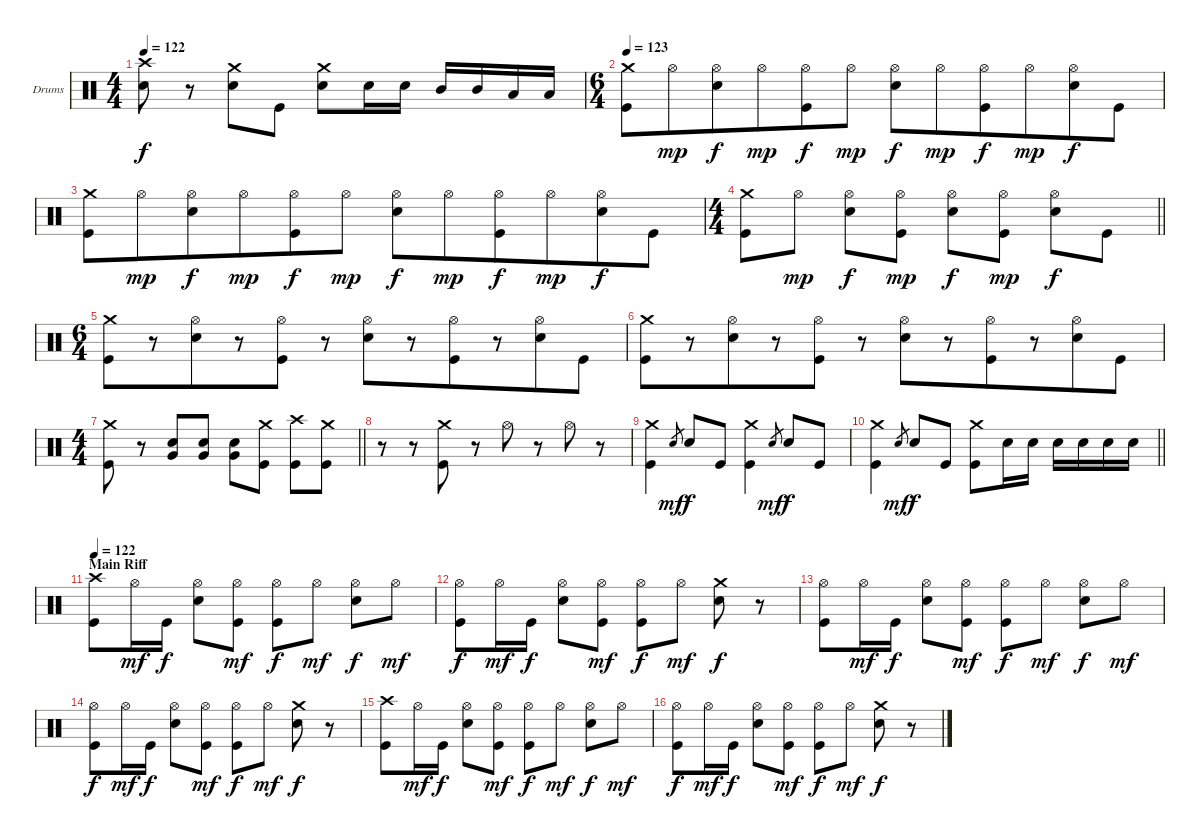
\bracketExtendMode groupsimilarinstruments
\firstSystemTrackNameOrientation horizontal
\otherSystemsTrackNameOrientation horizontal
\track ("Drumkit" "Drums") {instrument percussion}
\staff {score}
\articulation defaults
\ts (4 4)
\beaming (8 2 2 2 2)
\tempo 122
\clef neutral
\ks c
("Crash high (hit)" "Snare (hit) 2").8{dy f} r.8 ("Crash medium (hit)" "Snare (hit) 2").8 "Kick (hit)".8 ("Crash medium (hit)" "Snare (hit) 2").8 "Snare (hit) 2".16 "Snare (hit) 2".16 "Mid Tom (hit)".16 "Mid Tom (hit)".16 "Low Tom (hit)".16 "Low Tom (hit)".16 |
\ts (6 4)
\beaming (8 6 6)
\tempo 123
("Crash medium (hit)" "Kick (hit)").8 "Hi-Hat (open)".8{dy mp} ("Hi-Hat (open)" "Snare (hit) 2").8{dy f} "Hi-Hat (open)".8{dy mp} ("Hi-Hat (open)" "Kick (hit)").8{dy f} "Hi-Hat (open)".8{dy mp} ("Hi-Hat (open)" "Snare (hit) 2").8{dy f} "Hi-Hat (open)".8{dy mp} ("Hi-Hat (open)" "Kick (hit)").8{dy f} "Hi-Hat (open)".8{dy mp} ("Hi-Hat (open)" "Snare (hit) 2").8{dy f} "Kick (hit)".8 |
("Crash medium (hit)" "Kick (hit)").8 "Hi-Hat (open)".8{dy mp} ("Hi-Hat (open)" "Snare (hit) 2").8{dy f} "Hi-Hat (open)".8{dy mp} ("Hi-Hat (open)" "Kick (hit)").8{dy f} "Hi-Hat (open)".8{dy mp} ("Hi-Hat (open)" "Snare (hit) 2").8{dy f} "Hi-Hat (open)".8{dy mp} ("Hi-Hat (open)" "Kick (hit)").8{dy f} "Hi-Hat (open)".8{dy mp} ("Hi-Hat (open)" "Snare (hit) 2").8{dy f} "Kick (hit)".8 |
\ts (4 4)
\beaming (8 2 2 2 2)
\barLineRight lightlight
("Crash medium (hit)" "Kick (hit)").8 "Hi-Hat (open)".8{dy mp} ("Hi-Hat (open)" "Snare (hit) 2").8{dy f} ("Hi-Hat (open)" "Kick (hit)").8{dy mp} ("Hi-Hat (open)" "Snare (hit) 2").8{dy f} ("Hi-Hat (open)" "Kick (hit)").8{dy mp} ("Hi-Hat (open)" "Snare (hit) 2").8{dy f} "Kick (hit)".8 |
\ts (6 4)
\beaming (8 6 6)
("Crash medium (hit)" "Kick (hit)").8 r.8 ("Hi-Hat (open)" "Snare (hit) 2").8 r.8 ("Hi-Hat (open)" "Kick (hit)").8 r.8 ("Hi-Hat (open)" "Snare (hit) 2").8 r.8 ("Hi-Hat (open)" "Kick (hit)").8 r.8 ("Hi-Hat (open)" "Snare (hit) 2").8 "Kick (hit)".8 |
("Crash medium (hit)" "Kick (hit)").8 r.8 ("Hi-Hat (open)" "Snare (hit) 2").8 r.8 ("Hi-Hat (open)" "Kick (hit)").8 r.8 ("Hi-Hat (open)" "Snare (hit) 2").8 r.8 ("Hi-Hat (open)" "Kick (hit)").8 r.8 ("Hi-Hat (open)" "Snare (hit) 2").8 "Kick (hit)".8 |
\ts (4 4)
\beaming (8 2 2 2 2)
\barLineRight lightlight
("Crash medium (hit)" "Kick (hit)").8 r.8 ("Very Low Tom (hit)" "Snare (hit) 2").8 ("Very Low Tom (hit)" "Snare (hit) 2").8 ("Very Low Tom (hit)" "Snare (hit) 2").8 ("Crash medium (hit)" "Kick (hit)").8 ("Crash high (hit)" "Kick (hit)").8 ("Crash medium (hit)" "Kick (hit)").8 |
r.8 r.8 ("Crash medium (hit)" "Kick (hit)").8 r.8 "Hi-Hat (open)".8 r.8 "Hi-Hat (open)".8 r.8 |
("Crash medium (hit)" "Kick (hit)").4 "Snare (hit) 2".8{gr dy mf} "Snare (hit) 2".8{dy f} "Kick (hit)".8 ("Crash medium (hit)" "Kick (hit)").4 "Snare (hit) 2".8{gr dy mf} "Snare (hit) 2".8{dy f} "Kick (hit)".8 |
\barLineRight lightlight
("Crash medium (hit)" "Kick (hit)").4 "Snare (hit) 2".8{gr dy mf} "Snare (hit) 2".8{dy f} "Kick (hit)".8 ("Crash medium (hit)" "Kick (hit)").8 "Snare (hit) 2".16 "Snare (hit) 2".16 "Snare (hit) 2".16 "Snare (hit) 2".16 "Snare (hit) 2".16 "Snare (hit) 2".16 |
\section ("" "Main Riff")
\tempo 122
("Crash high (hit)" "Kick (hit)").8 "Hi-Hat (open)".16{dy mf} "Kick (hit)".16{dy f} ("Hi-Hat (open)" "Snare (hit) 2").8 ("Hi-Hat (open)" "Kick (hit)").8{dy mf} ("Hi-Hat (open)" "Kick (hit)").8{dy f} "Hi-Hat (open)".8{dy mf} ("Hi-Hat (open)" "Snare (hit) 2").8{dy f} "Hi-Hat (open)".8{dy mf} |
("Hi-Hat (open)" "Kick (hit)").8{dy f} "Hi-Hat (open)".16{dy mf} "Kick (hit)".16{dy f} ("Hi-Hat (open)" "Snare (hit) 2").8 ("Hi-Hat (open)" "Kick (hit)").8{dy mf} ("Hi-Hat (open)" "Kick (hit)").8{dy f} "Hi-Hat (open)".8{dy mf} ("Crash medium (hit)" "Snare (hit) 2").8{dy f} r.8 |
("Hi-Hat (open)" "Kick (hit)").8 "Hi-Hat (open)".16{dy mf} "Kick (hit)".16{dy f} ("Hi-Hat (open)" "Snare (hit) 2").8 ("Hi-Hat (open)" "Kick (hit)").8{dy mf} ("Hi-Hat (open)" "Kick (hit)").8{dy f} "Hi-Hat (open)".8{dy mf} ("Hi-Hat (open)" "Snare (hit) 2").8{dy f} "Hi-Hat (open)".8{dy mf} |
("Hi-Hat (open)" "Kick (hit)").8{dy f} "Hi-Hat (open)".16{dy mf} "Kick (hit)".16{dy f} ("Hi-Hat (open)" "Snare (hit) 2").8 ("Hi-Hat (open)" "Kick (hit)").8{dy mf} ("Hi-Hat (open)" "Kick (hit)").8{dy f} "Hi-Hat (open)".8{dy mf} ("Crash medium (hit)" "Snare (hit) 2").8{dy f} r.8 |
("Crash high (hit)" "Kick (hit)").8 "Hi-Hat (open)".16{dy mf} "Kick (hit)".16{dy f} ("Hi-Hat (open)" "Snare (hit) 2").8 ("Hi-Hat (open)" "Kick (hit)").8{dy mf} ("Hi-Hat (open)" "Kick (hit)").8{dy f} "Hi-Hat (open)".8{dy mf} ("Hi-Hat (open)" "Snare (hit) 2").8{dy f} "Hi-Hat (open)".8{dy mf} |
("Hi-Hat (open)" "Kick (hit)").8{dy f} "Hi-Hat (open)".16{dy mf} "Kick (hit)".16{dy f} ("Hi-Hat (open)" "Snare (hit) 2").8 ("Hi-Hat (open)" "Kick (hit)").8{dy mf} ("Hi-Hat (open)" "Kick (hit)").8{dy f} "Hi-Hat (open)".8{dy mf} ("Crash medium (hit)" "Snare (hit) 2").8{dy f} r.8
